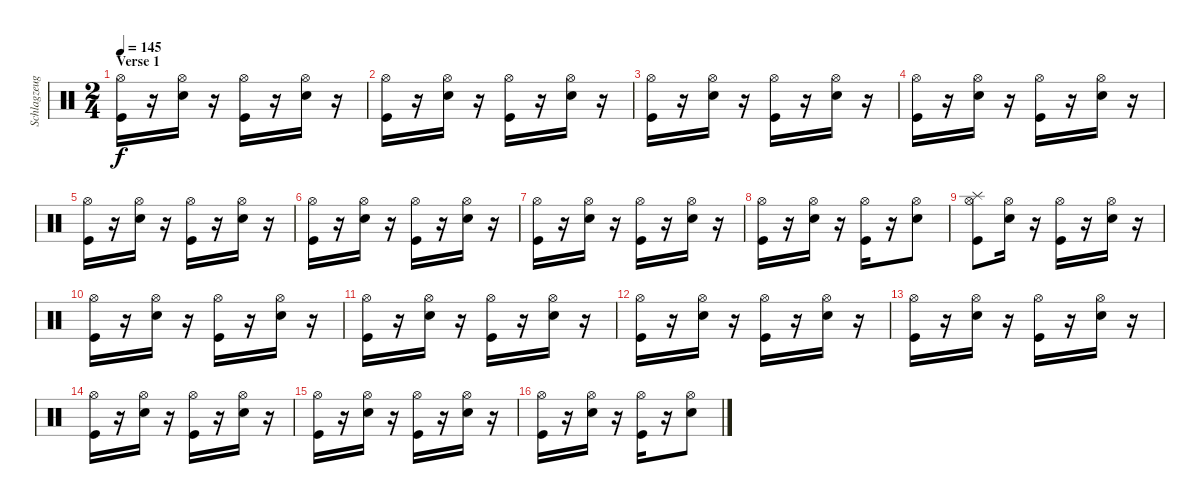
\track ("Schlagzeug - Bela B." "Schlagzeug") {instrument percussion}
\staff {score}
\articulation defaults
\ts (2 4)
\section ("" "Verse 1")
\tempo 145
\clef neutral
\ks c
("Kick (hit)" "Hi-Hat (open)").16{dy f} r.16 ("Electric Snare (hit)" "Hi-Hat (open)").16 r.16 ("Kick (hit)" "Hi-Hat (open)").16 r.16 ("Electric Snare (hit)" "Hi-Hat (open)").16 r.16 |
("Kick (hit)" "Hi-Hat (open)").16 r.16 ("Electric Snare (hit)" "Hi-Hat (open)").16 r.16 ("Kick (hit)" "Hi-Hat (open)").16 r.16 ("Electric Snare (hit)" "Hi-Hat (open)").16 r.16 |
("Kick (hit)" "Hi-Hat (open)").16 r.16 ("Electric Snare (hit)" "Hi-Hat (open)").16 r.16 ("Kick (hit)" "Hi-Hat (open)").16 r.16 ("Electric Snare (hit)" "Hi-Hat (open)").16 r.16 |
("Kick (hit)" "Hi-Hat (open)").16 r.16 ("Electric Snare (hit)" "Hi-Hat (open)").16 r.16 ("Kick (hit)" "Hi-Hat (open)").16 r.16 ("Electric Snare (hit)" "Hi-Hat (open)").16 r.16 |
("Kick (hit)" "Hi-Hat (open)").16 r.16 ("Electric Snare (hit)" "Hi-Hat (open)").16 r.16 ("Kick (hit)" "Hi-Hat (open)").16 r.16 ("Electric Snare (hit)" "Hi-Hat (open)").16 r.16 |
("Kick (hit)" "Hi-Hat (open)").16 r.16 ("Electric Snare (hit)" "Hi-Hat (open)").16 r.16 ("Kick (hit)" "Hi-Hat (open)").16 r.16 ("Electric Snare (hit)" "Hi-Hat (open)").16 r.16 |
("Kick (hit)" "Hi-Hat (open)").16 r.16 ("Electric Snare (hit)" "Hi-Hat (open)").16 r.16 ("Kick (hit)" "Hi-Hat (open)").16 r.16 ("Electric Snare (hit)" "Hi-Hat (open)").16 r.16 |
("Kick (hit)" "Hi-Hat (open)").16 r.16 ("Electric Snare (hit)" "Hi-Hat (open)").16 r.16 ("Kick (hit)" "Hi-Hat (open)").16 r.16 ("Hi-Hat (open)" "Electric Snare (hit)").8 |
("Kick (hit)" "Hi-Hat (open)" "Splash (hit)").8 ("Electric Snare (hit)" "Hi-Hat (open)").16 r.16 ("Kick (hit)" "Hi-Hat (open)").16 r.16 ("Electric Snare (hit)" "Hi-Hat (open)").16 r.16 |
("Kick (hit)" "Hi-Hat (open)").16 r.16 ("Electric Snare (hit)" "Hi-Hat (open)").16 r.16 ("Kick (hit)" "Hi-Hat (open)").16 r.16 ("Electric Snare (hit)" "Hi-Hat (open)").16 r.16 |
("Kick (hit)" "Hi-Hat (open)").16 r.16 ("Electric Snare (hit)" "Hi-Hat (open)").16 r.16 ("Kick (hit)" "Hi-Hat (open)").16 r.16 ("Electric Snare (hit)" "Hi-Hat (open)").16 r.16 |
("Kick (hit)" "Hi-Hat (open)").16 r.16 ("Electric Snare (hit)" "Hi-Hat (open)").16 r.16 ("Kick (hit)" "Hi-Hat (open)").16 r.16 ("Electric Snare (hit)" "Hi-Hat (open)").16 r.16 |
("Kick (hit)" "Hi-Hat (open)").16 r.16 ("Electric Snare (hit)" "Hi-Hat (open)").16 r.16 ("Kick (hit)" "Hi-Hat (open)").16 r.16 ("Electric Snare (hit)" "Hi-Hat (open)").16 r.16 |
("Kick (hit)" "Hi-Hat (open)").16 r.16 ("Electric Snare (hit)" "Hi-Hat (open)").16 r.16 ("Kick (hit)" "Hi-Hat (open)").16 r.16 ("Electric Snare (hit)" "Hi-Hat (open)").16 r.16 |
("Kick (hit)" "Hi-Hat (open)").16 r.16 ("Electric Snare (hit)" "Hi-Hat (open)").16 r.16 ("Kick (hit)" "Hi-Hat (open)").16 r.16 ("Electric Snare (hit)" "Hi-Hat (open)").16 r.16 |
("Kick (hit)" "Hi-Hat (open)").16 r.16 ("Electric Snare (hit)" "Hi-Hat (open)").16 r.16 ("Kick (hit)" "Hi-Hat (open)").16 r.16 ("Hi-Hat (open)" "Electric Snare (hit)").8
